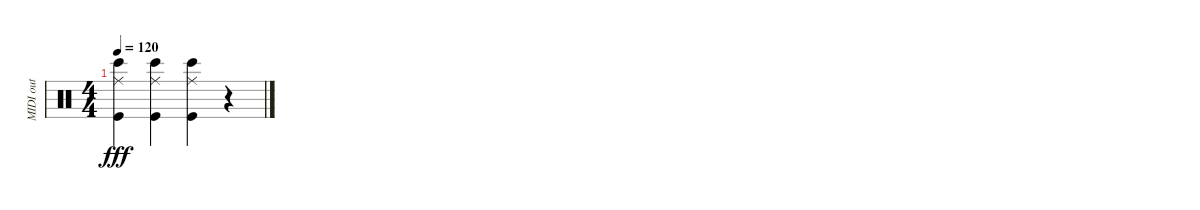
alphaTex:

\track ("MIDI out" "MIDI out") {instrument percussion}
\staff {score}
\articulation defaults
\ts (4 4)
\tempo 120
\clef neutral
\ks c
("Bongo High (hit)" "Ride (middle)" "Kick (hit)").4{dy fff} ("Kick (hit)" "Ride (middle)" "Bongo High (hit)").4 ("Ride (middle)" "Bongo High (hit)" "Kick (hit)").4 r.4
